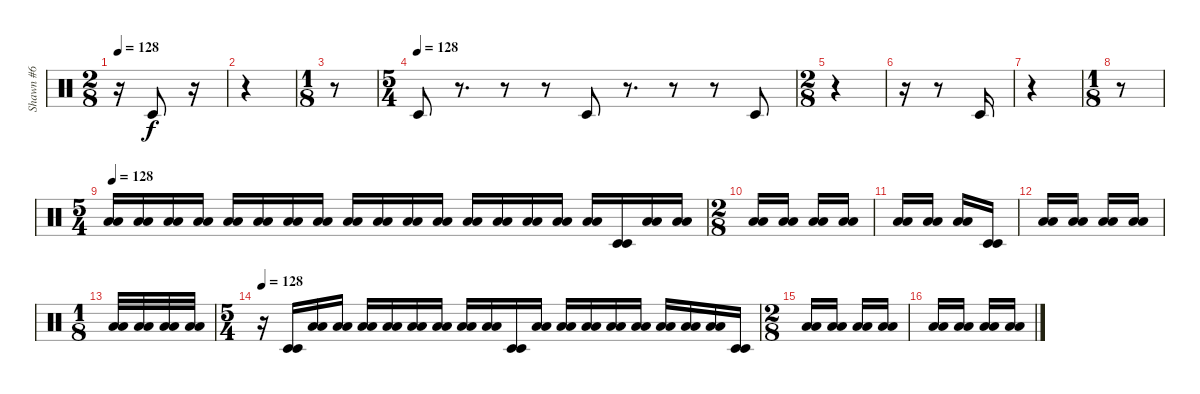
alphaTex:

\track ("Shawn #6" "Shawn #6") {instrument percussion}
\staff {score}
\articulation defaults
\ts (2 8)
\tempo 128
\clef neutral
\ks c
r.16{dy f} "Timbale low (hit)".8 r.16 |
r.4 |
\ts (1 8)
r.8 |
\ts (5 4)
\tempo (128)
"Timbale low (hit)".8 r.8{d} r.8 r.8 "Timbale low (hit)".8 r.8{d} r.8 r.8 "Timbale low (hit)".8 |
\ts (2 8)
r.4 |
r.16 r.8 "Timbale low (hit)".16 |
r.4 |
\ts (1 8)
r.8 |
\ts (5 4)
\tempo 128
("Low Floor Tom (hit)" "Low Floor Tom (hit)").16 ("Low Floor Tom (hit)" "Low Floor Tom (hit)").16 ("Low Floor Tom (hit)" "Low Floor Tom (hit)").16 ("Low Floor Tom (hit)" "Low Floor Tom (hit)").16 ("Low Floor Tom (hit)" "Low Floor Tom (hit)").16 ("Low Floor Tom (hit)" "Low Floor Tom (hit)").16 ("Low Floor Tom (hit)" "Low Floor Tom (hit)").16 ("Low Floor Tom (hit)" "Low Floor Tom (hit)").16 ("Low Floor Tom (hit)" "Low Floor Tom (hit)").16 ("Low Floor Tom (hit)" "Low Floor Tom (hit)").16 ("Low Floor Tom (hit)" "Low Floor Tom (hit)").16 ("Low Floor Tom (hit)" "Low Floor Tom (hit)").16 ("Low Floor Tom (hit)" "Low Floor Tom (hit)").16 ("Low Floor Tom (hit)" "Low Floor Tom (hit)").16 ("Low Floor Tom (hit)" "Low Floor Tom (hit)").16 ("Low Floor Tom (hit)" "Low Floor Tom (hit)").16 ("Low Floor Tom (hit)" "Low Floor Tom (hit)").16 ("Timbale low (hit)" "Timbale low (hit)").16 ("Low Floor Tom (hit)" "Low Floor Tom (hit)").16 ("Low Floor Tom (hit)" "Low Floor Tom (hit)").16 |
\ts (2 8)
("Low Floor Tom (hit)" "Low Floor Tom (hit)").16 ("Low Floor Tom (hit)" "Low Floor Tom (hit)").16 ("Low Floor Tom (hit)" "Low Floor Tom (hit)").16 ("Low Floor Tom (hit)" "Low Floor Tom (hit)").16 |
("Low Floor Tom (hit)" "Low Floor Tom (hit)").16 ("Low Floor Tom (hit)" "Low Floor Tom (hit)").16 ("Low Floor Tom (hit)" "Low Floor Tom (hit)").16 ("Timbale low (hit)" "Timbale low (hit)").16 |
("Low Floor Tom (hit)" "Low Floor Tom (hit)").16 ("Low Floor Tom (hit)" "Low Floor Tom (hit)").16 ("Low Floor Tom (hit)" "Low Floor Tom (hit)").16 ("Low Floor Tom (hit)" "Low Floor Tom (hit)").16 |
\ts (1 8)
("Low Floor Tom (hit)" "Low Floor Tom (hit)").32 ("Low Floor Tom (hit)" "Low Floor Tom (hit)").32 ("Low Floor Tom (hit)" "Low Floor Tom (hit)").32 ("Low Floor Tom (hit)" "Low Floor Tom (hit)").32 |
\ts (5 4)
\tempo 128
r.16 ("Timbale low (hit)" "Timbale low (hit)").16 ("Low Floor Tom (hit)" "Low Floor Tom (hit)").16 ("Low Floor Tom (hit)" "Low Floor Tom (hit)").16 ("Low Floor Tom (hit)" "Low Floor Tom (hit)").16 ("Low Floor Tom (hit)" "Low Floor Tom (hit)").16 ("Low Floor Tom (hit)" "Low Floor Tom (hit)").16 ("Low Floor Tom (hit)" "Low Floor Tom (hit)").16 ("Low Floor Tom (hit)" "Low Floor Tom (hit)").16 ("Low Floor Tom (hit)" "Low Floor Tom (hit)").16 ("Timbale low (hit)" "Timbale low (hit)").16 ("Low Floor Tom (hit)" "Low Floor Tom (hit)").16 ("Low Floor Tom (hit)" "Low Floor Tom (hit)").16 ("Low Floor Tom (hit)" "Low Floor Tom (hit)").16 ("Low Floor Tom (hit)" "Low Floor Tom (hit)").16 ("Low Floor Tom (hit)" "Low Floor Tom (hit)").16 ("Low Floor Tom (hit)" "Low Floor Tom (hit)").16 ("Low Floor Tom (hit)" "Low Floor Tom (hit)").16 ("Low Floor Tom (hit)" "Low Floor Tom (hit)").16 ("Timbale low (hit)" "Timbale low (hit)").16 |
\ts (2 8)
("Low Floor Tom (hit)" "Low Floor Tom (hit)").16 ("Low Floor Tom (hit)" "Low Floor Tom (hit)").16 ("Low Floor Tom (hit)" "Low Floor Tom (hit)").16 ("Low Floor Tom (hit)" "Low Floor Tom (hit)").16 |
("Low Floor Tom (hit)" "Low Floor Tom (hit)").16 ("Low Floor Tom (hit)" "Low Floor Tom (hit)").16 ("Low Floor Tom (hit)" "Low Floor Tom (hit)").16 ("Low Floor Tom (hit)" "Low Floor Tom (hit)").16
